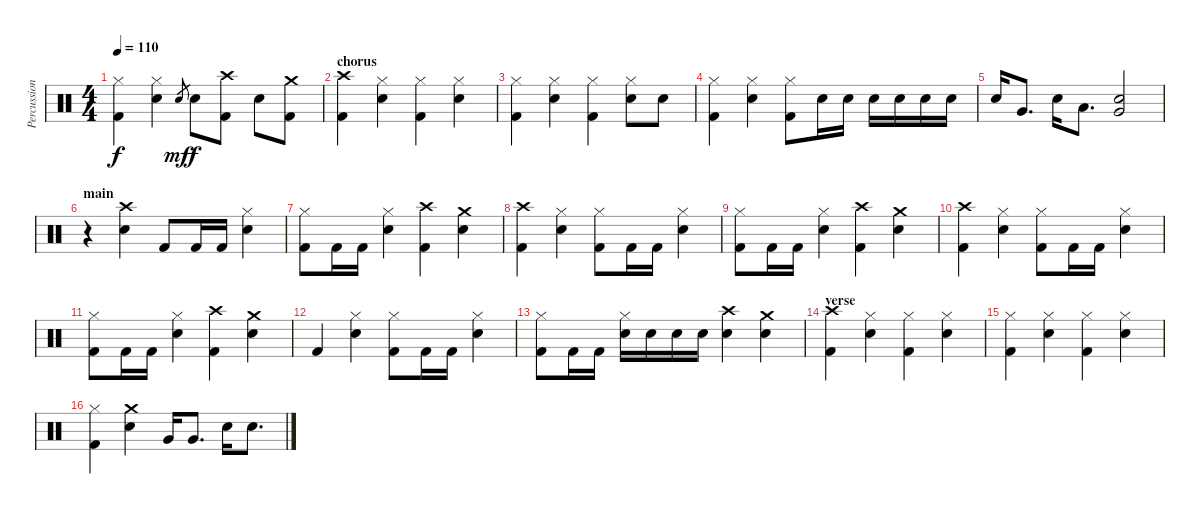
\track ("Percussion" "Percussion") {instrument percussion}
\staff {score}
\articulation defaults
\ts (4 4)
\tempo 110
\clef neutral
\ks c
("Hi-Hat (closed)" "Kick (hit) 2").4{dy f} ("Hi-Hat (closed)" "Snare (hit) 2").4 "Snare (hit)".8{gr dy mf} "Snare (hit) 2".8{dy f} ("Crash high (hit)" "Kick (hit) 2").8 "Snare (hit) 2".8 ("Crash medium (hit)" "Kick (hit) 2").8 |
\section ("" "chorus")
("Crash high (hit)" "Kick (hit) 2").4 ("Hi-Hat (closed)" "Snare (hit) 2").4 ("Hi-Hat (closed)" "Kick (hit) 2").4 ("Hi-Hat (closed)" "Snare (hit) 2").4 |
("Hi-Hat (closed)" "Kick (hit) 2").4 ("Hi-Hat (closed)" "Snare (hit) 2").4 ("Hi-Hat (closed)" "Kick (hit) 2").4 ("Hi-Hat (closed)" "Snare (hit) 2").8 "Snare (hit) 2".8 |
("Hi-Hat (closed)" "Kick (hit) 2").4 ("Hi-Hat (closed)" "Snare (hit) 2").4 ("Hi-Hat (closed)" "Kick (hit) 2").8 "Snare (hit) 2".16 "Snare (hit) 2".16 "Snare (hit) 2".16 "Snare (hit) 2".16 "Snare (hit) 2".16 "Snare (hit) 2".16 |
"Snare (hit) 2".16 "Very Low Tom (hit)".8{d} "Snare (hit) 2".16 "Low Tom (hit)".8{d} ("Very Low Tom (hit)" "Snare (hit) 2").2 |
\section ("" "main")
r.4 ("Crash high (hit)" "Snare (hit) 2").4 "Kick (hit) 2".8 "Kick (hit) 2".16 "Kick (hit) 2".16 ("Hi-Hat (closed)" "Snare (hit) 2").4 |
("Hi-Hat (closed)" "Kick (hit) 2").8 "Kick (hit) 2".16 "Kick (hit) 2".16 ("Hi-Hat (closed)" "Snare (hit) 2").4 ("Crash high (hit)" "Kick (hit) 2").4 ("Crash medium (hit)" "Snare (hit) 2").4 |
("Crash high (hit)" "Kick (hit) 2").4 ("Hi-Hat (closed)" "Snare (hit) 2").4 ("Hi-Hat (closed)" "Kick (hit) 2").8 "Kick (hit) 2".16 "Kick (hit) 2".16 ("Hi-Hat (closed)" "Snare (hit) 2").4 |
("Hi-Hat (closed)" "Kick (hit) 2").8 "Kick (hit) 2".16 "Kick (hit) 2".16 ("Hi-Hat (closed)" "Snare (hit) 2").4 ("Crash high (hit)" "Kick (hit) 2").4 ("Crash medium (hit)" "Snare (hit) 2").4 |
("Crash high (hit)" "Kick (hit) 2").4 ("Hi-Hat (closed)" "Snare (hit) 2").4 ("Hi-Hat (closed)" "Kick (hit) 2").8 "Kick (hit) 2".16 "Kick (hit) 2".16 ("Hi-Hat (closed)" "Snare (hit) 2").4 |
("Hi-Hat (closed)" "Kick (hit) 2").8 "Kick (hit) 2".16 "Kick (hit) 2".16 ("Hi-Hat (closed)" "Snare (hit) 2").4 ("Crash high (hit)" "Kick (hit) 2").4 ("Crash medium (hit)" "Snare (hit) 2").4 |
"Kick (hit) 2".4 ("Hi-Hat (closed)" "Snare (hit) 2").4 ("Hi-Hat (closed)" "Kick (hit) 2").8 "Kick (hit) 2".16 "Kick (hit) 2".16 ("Hi-Hat (closed)" "Snare (hit) 2").4 |
("Hi-Hat (closed)" "Kick (hit) 2").8 "Kick (hit) 2".16 "Kick (hit) 2".16 ("Hi-Hat (closed)" "Snare (hit) 2").16 "Snare (hit) 2".16 "Snare (hit) 2".16 "Snare (hit) 2".16 ("Crash high (hit)" "Snare (hit) 2").4 ("Crash medium (hit)" "Snare (hit) 2").4 |
\section ("" "verse")
("Crash high (hit)" "Kick (hit) 2").4 ("Hi-Hat (closed)" "Snare (hit) 2").4 ("Hi-Hat (closed)" "Kick (hit) 2").4 ("Hi-Hat (closed)" "Snare (hit) 2").4 |
("Hi-Hat (closed)" "Kick (hit) 2").4 ("Hi-Hat (closed)" "Snare (hit) 2").4 ("Hi-Hat (closed)" "Kick (hit) 2").4 ("Hi-Hat (closed)" "Snare (hit) 2").4 |
("Hi-Hat (closed)" "Kick (hit) 2").4 ("Crash medium (hit)" "Snare (hit) 2").4 "Very Low Tom (hit)".16 "Very Low Tom (hit)".8{d} "Snare (hit) 2".16 "Snare (hit) 2".8{d}
